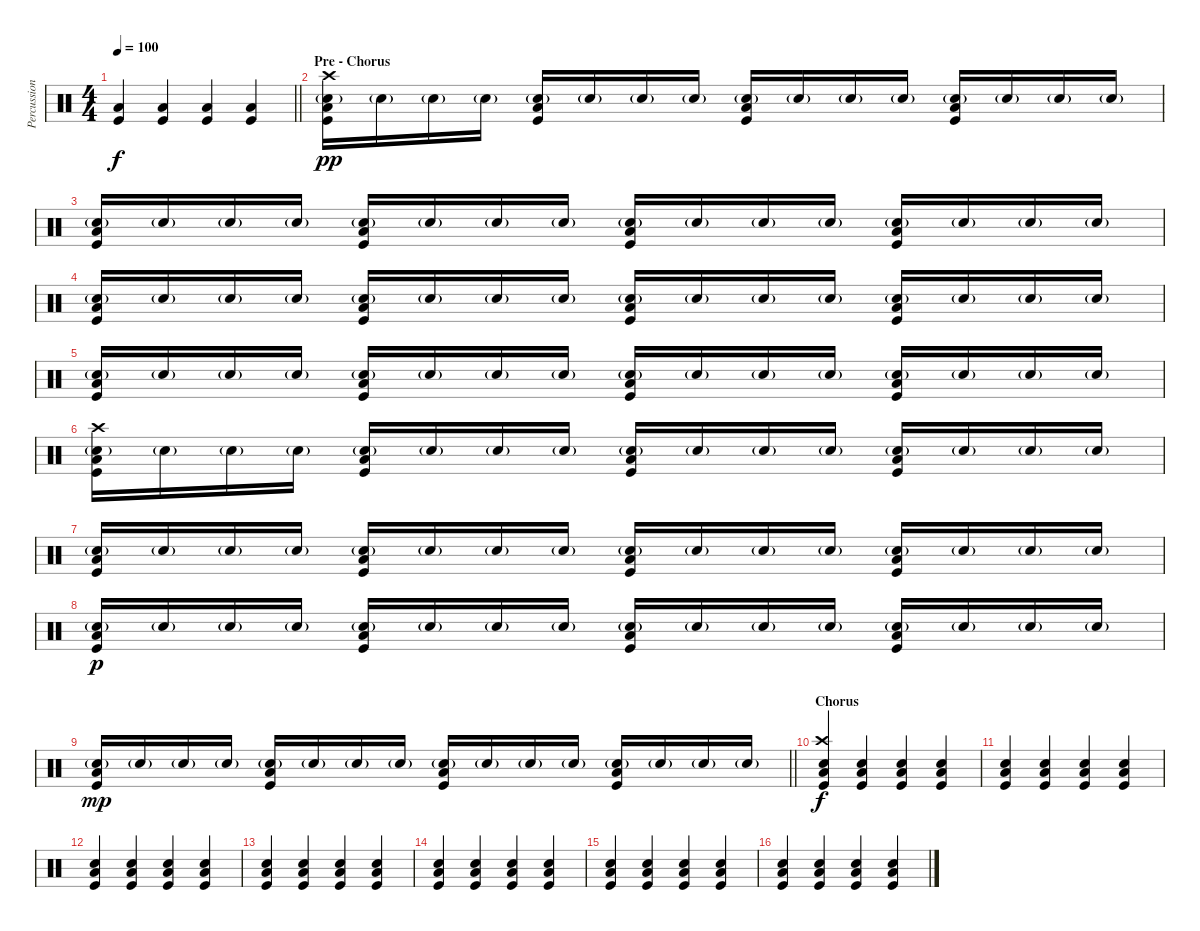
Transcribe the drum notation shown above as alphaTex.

\track ("Percussion" "Percussion") {instrument percussion}
\staff {score}
\articulation defaults
\ts (4 4)
\tempo 100
\clef neutral
\barLineRight lightlight
\ks c
("Kick (hit)" "Low Floor Tom (hit)").4{dy f} ("Kick (hit)" "Low Floor Tom (hit)").4 ("Kick (hit)" "Low Floor Tom (hit)").4 ("Kick (hit)" "Low Floor Tom (hit)").4 |
\section ("" "Pre - Chorus")
("Snare (hit) 2"{g} "Kick (hit)" "Low Floor Tom (hit)" "Crash high (hit)").16{dy pp} "Snare (hit) 2"{g}.16 "Snare (hit) 2"{g}.16 "Snare (hit) 2"{g}.16 ("Snare (hit) 2"{g} "Kick (hit)" "Low Floor Tom (hit)").16 "Snare (hit) 2"{g}.16 "Snare (hit) 2"{g}.16 "Snare (hit) 2"{g}.16 ("Snare (hit) 2"{g} "Kick (hit)" "Low Floor Tom (hit)").16 "Snare (hit) 2"{g}.16 "Snare (hit) 2"{g}.16 "Snare (hit) 2"{g}.16 ("Snare (hit) 2"{g} "Kick (hit)" "Low Floor Tom (hit)").16 "Snare (hit) 2"{g}.16 "Snare (hit) 2"{g}.16 "Snare (hit) 2"{g}.16 |
("Snare (hit) 2"{g} "Kick (hit)" "Low Floor Tom (hit)").16 "Snare (hit) 2"{g}.16 "Snare (hit) 2"{g}.16 "Snare (hit) 2"{g}.16 ("Snare (hit) 2"{g} "Kick (hit)" "Low Floor Tom (hit)").16 "Snare (hit) 2"{g}.16 "Snare (hit) 2"{g}.16 "Snare (hit) 2"{g}.16 ("Snare (hit) 2"{g} "Kick (hit)" "Low Floor Tom (hit)").16 "Snare (hit) 2"{g}.16 "Snare (hit) 2"{g}.16 "Snare (hit) 2"{g}.16 ("Snare (hit) 2"{g} "Kick (hit)" "Low Floor Tom (hit)").16 "Snare (hit) 2"{g}.16 "Snare (hit) 2"{g}.16 "Snare (hit) 2"{g}.16 |
("Snare (hit) 2"{g} "Kick (hit)" "Low Floor Tom (hit)").16 "Snare (hit) 2"{g}.16 "Snare (hit) 2"{g}.16 "Snare (hit) 2"{g}.16 ("Snare (hit) 2"{g} "Kick (hit)" "Low Floor Tom (hit)").16 "Snare (hit) 2"{g}.16 "Snare (hit) 2"{g}.16 "Snare (hit) 2"{g}.16 ("Snare (hit) 2"{g} "Kick (hit)" "Low Floor Tom (hit)").16 "Snare (hit) 2"{g}.16 "Snare (hit) 2"{g}.16 "Snare (hit) 2"{g}.16 ("Snare (hit) 2"{g} "Kick (hit)" "Low Floor Tom (hit)").16 "Snare (hit) 2"{g}.16 "Snare (hit) 2"{g}.16 "Snare (hit) 2"{g}.16 |
("Snare (hit) 2"{g} "Kick (hit)" "Low Floor Tom (hit)").16 "Snare (hit) 2"{g}.16 "Snare (hit) 2"{g}.16 "Snare (hit) 2"{g}.16 ("Snare (hit) 2"{g} "Kick (hit)" "Low Floor Tom (hit)").16 "Snare (hit) 2"{g}.16 "Snare (hit) 2"{g}.16 "Snare (hit) 2"{g}.16 ("Snare (hit) 2"{g} "Kick (hit)" "Low Floor Tom (hit)").16 "Snare (hit) 2"{g}.16 "Snare (hit) 2"{g}.16 "Snare (hit) 2"{g}.16 ("Snare (hit) 2"{g} "Kick (hit)" "Low Floor Tom (hit)").16 "Snare (hit) 2"{g}.16 "Snare (hit) 2"{g}.16 "Snare (hit) 2"{g}.16 |
("Snare (hit) 2"{g} "Kick (hit)" "Low Floor Tom (hit)" "Crash high (hit)").16 "Snare (hit) 2"{g}.16 "Snare (hit) 2"{g}.16 "Snare (hit) 2"{g}.16 ("Snare (hit) 2"{g} "Kick (hit)" "Low Floor Tom (hit)").16 "Snare (hit) 2"{g}.16 "Snare (hit) 2"{g}.16 "Snare (hit) 2"{g}.16 ("Snare (hit) 2"{g} "Kick (hit)" "Low Floor Tom (hit)").16 "Snare (hit) 2"{g}.16 "Snare (hit) 2"{g}.16 "Snare (hit) 2"{g}.16 ("Snare (hit) 2"{g} "Kick (hit)" "Low Floor Tom (hit)").16 "Snare (hit) 2"{g}.16 "Snare (hit) 2"{g}.16 "Snare (hit) 2"{g}.16 |
("Snare (hit) 2"{g} "Kick (hit)" "Low Floor Tom (hit)").16 "Snare (hit) 2"{g}.16 "Snare (hit) 2"{g}.16 "Snare (hit) 2"{g}.16 ("Snare (hit) 2"{g} "Kick (hit)" "Low Floor Tom (hit)").16 "Snare (hit) 2"{g}.16 "Snare (hit) 2"{g}.16 "Snare (hit) 2"{g}.16 ("Snare (hit) 2"{g} "Kick (hit)" "Low Floor Tom (hit)").16 "Snare (hit) 2"{g}.16 "Snare (hit) 2"{g}.16 "Snare (hit) 2"{g}.16 ("Snare (hit) 2"{g} "Kick (hit)" "Low Floor Tom (hit)").16 "Snare (hit) 2"{g}.16 "Snare (hit) 2"{g}.16 "Snare (hit) 2"{g}.16 |
("Snare (hit) 2"{g} "Kick (hit)" "Low Floor Tom (hit)").16{dy p} "Snare (hit) 2"{g}.16 "Snare (hit) 2"{g}.16 "Snare (hit) 2"{g}.16 ("Snare (hit) 2"{g} "Kick (hit)" "Low Floor Tom (hit)").16 "Snare (hit) 2"{g}.16 "Snare (hit) 2"{g}.16 "Snare (hit) 2"{g}.16 ("Snare (hit) 2"{g} "Kick (hit)" "Low Floor Tom (hit)").16 "Snare (hit) 2"{g}.16 "Snare (hit) 2"{g}.16 "Snare (hit) 2"{g}.16 ("Snare (hit) 2"{g} "Kick (hit)" "Low Floor Tom (hit)").16 "Snare (hit) 2"{g}.16 "Snare (hit) 2"{g}.16 "Snare (hit) 2"{g}.16 |
\barLineRight lightlight
("Snare (hit) 2"{g} "Kick (hit)" "Low Floor Tom (hit)").16{dy mp} "Snare (hit) 2"{g}.16 "Snare (hit) 2"{g}.16 "Snare (hit) 2"{g}.16 ("Snare (hit) 2"{g} "Kick (hit)" "Low Floor Tom (hit)").16 "Snare (hit) 2"{g}.16 "Snare (hit) 2"{g}.16 "Snare (hit) 2"{g}.16 ("Snare (hit) 2"{g} "Kick (hit)" "Low Floor Tom (hit)").16 "Snare (hit) 2"{g}.16 "Snare (hit) 2"{g}.16 "Snare (hit) 2"{g}.16 ("Snare (hit) 2"{g} "Kick (hit)" "Low Floor Tom (hit)").16 "Snare (hit) 2"{g}.16 "Snare (hit) 2"{g}.16 "Snare (hit) 2"{g}.16 |
\section ("" "Chorus")
("Electric Snare (hit)" "Kick (hit)" "Low Floor Tom (hit)" "Crash high (hit)").4{dy f} ("Electric Snare (hit)" "Kick (hit)" "Low Floor Tom (hit)").4 ("Electric Snare (hit)" "Kick (hit)" "Low Floor Tom (hit)").4 ("Electric Snare (hit)" "Kick (hit)" "Low Floor Tom (hit)").4 |
("Electric Snare (hit)" "Kick (hit)" "Low Floor Tom (hit)").4 ("Electric Snare (hit)" "Kick (hit)" "Low Floor Tom (hit)").4 ("Electric Snare (hit)" "Kick (hit)" "Low Floor Tom (hit)").4 ("Electric Snare (hit)" "Kick (hit)" "Low Floor Tom (hit)").4 |
("Electric Snare (hit)" "Kick (hit)" "Low Floor Tom (hit)").4 ("Electric Snare (hit)" "Kick (hit)" "Low Floor Tom (hit)").4 ("Electric Snare (hit)" "Kick (hit)" "Low Floor Tom (hit)").4 ("Electric Snare (hit)" "Kick (hit)" "Low Floor Tom (hit)").4 |
("Electric Snare (hit)" "Kick (hit)" "Low Floor Tom (hit)").4 ("Electric Snare (hit)" "Kick (hit)" "Low Floor Tom (hit)").4 ("Electric Snare (hit)" "Kick (hit)" "Low Floor Tom (hit)").4 ("Electric Snare (hit)" "Kick (hit)" "Low Floor Tom (hit)").4 |
("Electric Snare (hit)" "Kick (hit)" "Low Floor Tom (hit)").4 ("Electric Snare (hit)" "Kick (hit)" "Low Floor Tom (hit)").4 ("Electric Snare (hit)" "Kick (hit)" "Low Floor Tom (hit)").4 ("Electric Snare (hit)" "Kick (hit)" "Low Floor Tom (hit)").4 |
("Electric Snare (hit)" "Kick (hit)" "Low Floor Tom (hit)").4 ("Electric Snare (hit)" "Kick (hit)" "Low Floor Tom (hit)").4 ("Electric Snare (hit)" "Kick (hit)" "Low Floor Tom (hit)").4 ("Electric Snare (hit)" "Kick (hit)" "Low Floor Tom (hit)").4 |
("Electric Snare (hit)" "Kick (hit)" "Low Floor Tom (hit)").4 ("Electric Snare (hit)" "Kick (hit)" "Low Floor Tom (hit)").4 ("Electric Snare (hit)" "Kick (hit)" "Low Floor Tom (hit)").4 ("Electric Snare (hit)" "Kick (hit)" "Low Floor Tom (hit)").4
